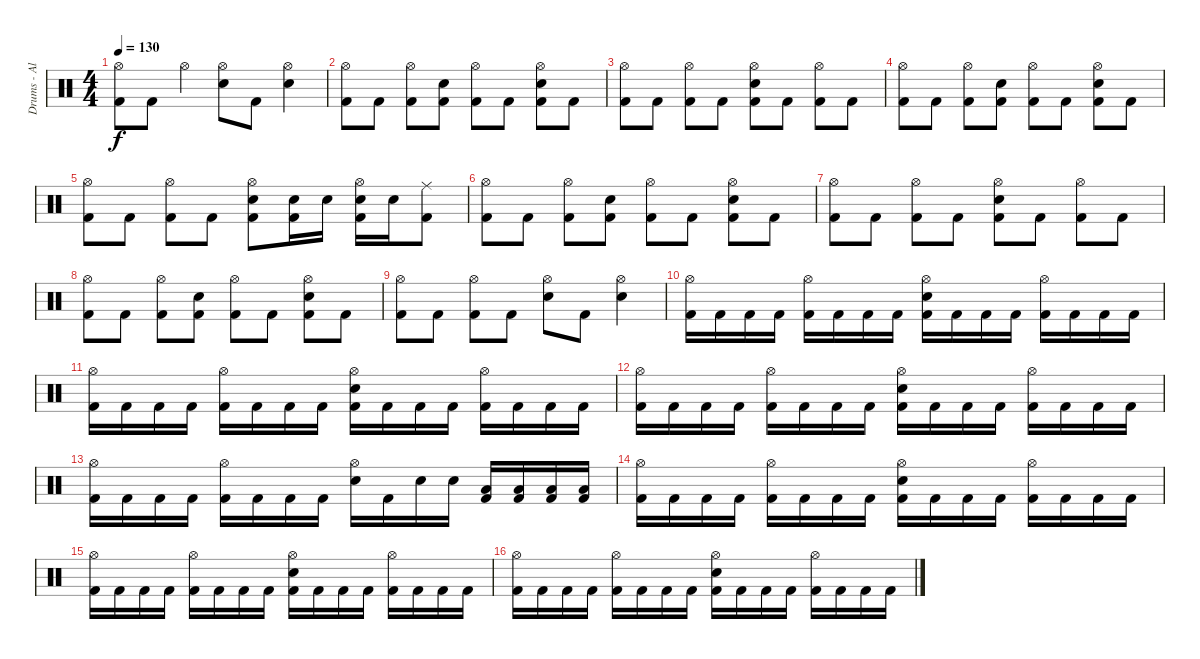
\track ("Drums - Alex Wank" "Drums - Al") {instrument percussion}
\staff {score}
\articulation defaults
\ts (4 4)
\tempo 130
\clef neutral
\ks c
("Hi-Hat (open)" "Kick (hit) 2").8{dy f} "Kick (hit) 2".8 "Hi-Hat (open)".4 ("Hi-Hat (open)" "Electric Snare (hit)").8 "Kick (hit) 2".8 ("Hi-Hat (open)" "Electric Snare (hit)").4 |
("Hi-Hat (open)" "Kick (hit) 2").8 "Kick (hit) 2".8 ("Hi-Hat (open)" "Kick (hit) 2").8 ("Electric Snare (hit)" "Kick (hit) 2").8 ("Hi-Hat (open)" "Kick (hit) 2").8 "Kick (hit) 2".8 ("Hi-Hat (open)" "Electric Snare (hit)" "Kick (hit) 2").8 "Kick (hit) 2".8 |
("Hi-Hat (open)" "Kick (hit) 2").8 "Kick (hit) 2".8 ("Hi-Hat (open)" "Kick (hit) 2").8 "Kick (hit) 2".8 ("Hi-Hat (open)" "Electric Snare (hit)" "Kick (hit) 2").8 "Kick (hit) 2".8 ("Hi-Hat (open)" "Kick (hit) 2").8 "Kick (hit) 2".8 |
("Hi-Hat (open)" "Kick (hit) 2").8 "Kick (hit) 2".8 ("Hi-Hat (open)" "Kick (hit) 2").8 ("Electric Snare (hit)" "Kick (hit) 2").8 ("Hi-Hat (open)" "Kick (hit) 2").8 "Kick (hit) 2".8 ("Hi-Hat (open)" "Electric Snare (hit)" "Kick (hit) 2").8 "Kick (hit) 2".8 |
("Hi-Hat (open)" "Kick (hit) 2").8 "Kick (hit) 2".8 ("Hi-Hat (open)" "Kick (hit) 2").8 "Kick (hit) 2".8 ("Hi-Hat (open)" "Electric Snare (hit)" "Kick (hit) 2").8 ("Electric Snare (hit)" "Kick (hit) 2").16 "Electric Snare (hit)".16 ("Hi-Hat (open)" "Electric Snare (hit)" "Kick (hit) 2").16 "Electric Snare (hit)".16 ("Ride (middle)" "Kick (hit) 2").8 |
("Hi-Hat (open)" "Kick (hit) 2").8 "Kick (hit) 2".8 ("Hi-Hat (open)" "Kick (hit) 2").8 ("Electric Snare (hit)" "Kick (hit) 2").8 ("Hi-Hat (open)" "Kick (hit) 2").8 "Kick (hit) 2".8 ("Hi-Hat (open)" "Electric Snare (hit)" "Kick (hit) 2").8 "Kick (hit) 2".8 |
("Hi-Hat (open)" "Kick (hit) 2").8 "Kick (hit) 2".8 ("Hi-Hat (open)" "Kick (hit) 2").8 "Kick (hit) 2".8 ("Hi-Hat (open)" "Electric Snare (hit)" "Kick (hit) 2").8 "Kick (hit) 2".8 ("Hi-Hat (open)" "Kick (hit) 2").8 "Kick (hit) 2".8 |
("Hi-Hat (open)" "Kick (hit) 2").8 "Kick (hit) 2".8 ("Hi-Hat (open)" "Kick (hit) 2").8 ("Electric Snare (hit)" "Kick (hit) 2").8 ("Hi-Hat (open)" "Kick (hit) 2").8 "Kick (hit) 2".8 ("Hi-Hat (open)" "Electric Snare (hit)" "Kick (hit) 2").8 "Kick (hit) 2".8 |
("Hi-Hat (open)" "Kick (hit) 2").8 "Kick (hit) 2".8 ("Hi-Hat (open)" "Kick (hit) 2").8 "Kick (hit) 2".8 ("Hi-Hat (open)" "Electric Snare (hit)").8 "Kick (hit) 2".8 ("Hi-Hat (open)" "Electric Snare (hit)").4 |
("Hi-Hat (open)" "Kick (hit) 2").16 "Kick (hit) 2".16 "Kick (hit) 2".16 "Kick (hit) 2".16 ("Hi-Hat (open)" "Kick (hit) 2").16 "Kick (hit) 2".16 "Kick (hit) 2".16 "Kick (hit) 2".16 ("Hi-Hat (open)" "Electric Snare (hit)" "Kick (hit) 2").16 "Kick (hit) 2".16 "Kick (hit) 2".16 "Kick (hit) 2".16 ("Hi-Hat (open)" "Kick (hit) 2").16 "Kick (hit) 2".16 "Kick (hit) 2".16 "Kick (hit) 2".16 |
("Hi-Hat (open)" "Kick (hit) 2").16 "Kick (hit) 2".16 "Kick (hit) 2".16 "Kick (hit) 2".16 ("Hi-Hat (open)" "Kick (hit) 2").16 "Kick (hit) 2".16 "Kick (hit) 2".16 "Kick (hit) 2".16 ("Hi-Hat (open)" "Electric Snare (hit)" "Kick (hit) 2").16 "Kick (hit) 2".16 "Kick (hit) 2".16 "Kick (hit) 2".16 ("Hi-Hat (open)" "Kick (hit) 2").16 "Kick (hit) 2".16 "Kick (hit) 2".16 "Kick (hit) 2".16 |
("Hi-Hat (open)" "Kick (hit) 2").16 "Kick (hit) 2".16 "Kick (hit) 2".16 "Kick (hit) 2".16 ("Hi-Hat (open)" "Kick (hit) 2").16 "Kick (hit) 2".16 "Kick (hit) 2".16 "Kick (hit) 2".16 ("Hi-Hat (open)" "Electric Snare (hit)" "Kick (hit) 2").16 "Kick (hit) 2".16 "Kick (hit) 2".16 "Kick (hit) 2".16 ("Hi-Hat (open)" "Kick (hit) 2").16 "Kick (hit) 2".16 "Kick (hit) 2".16 "Kick (hit) 2".16 |
("Hi-Hat (open)" "Kick (hit) 2").16 "Kick (hit) 2".16 "Kick (hit) 2".16 "Kick (hit) 2".16 ("Hi-Hat (open)" "Kick (hit) 2").16 "Kick (hit) 2".16 "Kick (hit) 2".16 "Kick (hit) 2".16 ("Hi-Hat (open)" "Electric Snare (hit)").16 "Kick (hit) 2".16 "Electric Snare (hit)".16 "Electric Snare (hit)".16 ("Low Floor Tom (hit)" "Kick (hit) 2").16 ("Low Floor Tom (hit)" "Kick (hit) 2").16 ("Low Floor Tom (hit)" "Kick (hit) 2").16 ("Low Floor Tom (hit)" "Kick (hit) 2").16 |
("Hi-Hat (open)" "Kick (hit) 2").16 "Kick (hit) 2".16 "Kick (hit) 2".16 "Kick (hit) 2".16 ("Hi-Hat (open)" "Kick (hit) 2").16 "Kick (hit) 2".16 "Kick (hit) 2".16 "Kick (hit) 2".16 ("Hi-Hat (open)" "Electric Snare (hit)" "Kick (hit) 2").16 "Kick (hit) 2".16 "Kick (hit) 2".16 "Kick (hit) 2".16 ("Hi-Hat (open)" "Kick (hit) 2").16 "Kick (hit) 2".16 "Kick (hit) 2".16 "Kick (hit) 2".16 |
("Hi-Hat (open)" "Kick (hit) 2").16 "Kick (hit) 2".16 "Kick (hit) 2".16 "Kick (hit) 2".16 ("Hi-Hat (open)" "Kick (hit) 2").16 "Kick (hit) 2".16 "Kick (hit) 2".16 "Kick (hit) 2".16 ("Hi-Hat (open)" "Electric Snare (hit)" "Kick (hit) 2").16 "Kick (hit) 2".16 "Kick (hit) 2".16 "Kick (hit) 2".16 ("Hi-Hat (open)" "Kick (hit) 2").16 "Kick (hit) 2".16 "Kick (hit) 2".16 "Kick (hit) 2".16 |
("Hi-Hat (open)" "Kick (hit) 2").16 "Kick (hit) 2".16 "Kick (hit) 2".16 "Kick (hit) 2".16 ("Hi-Hat (open)" "Kick (hit) 2").16 "Kick (hit) 2".16 "Kick (hit) 2".16 "Kick (hit) 2".16 ("Hi-Hat (open)" "Electric Snare (hit)" "Kick (hit) 2").16 "Kick (hit) 2".16 "Kick (hit) 2".16 "Kick (hit) 2".16 ("Hi-Hat (open)" "Kick (hit) 2").16 "Kick (hit) 2".16 "Kick (hit) 2".16 "Kick (hit) 2".16
